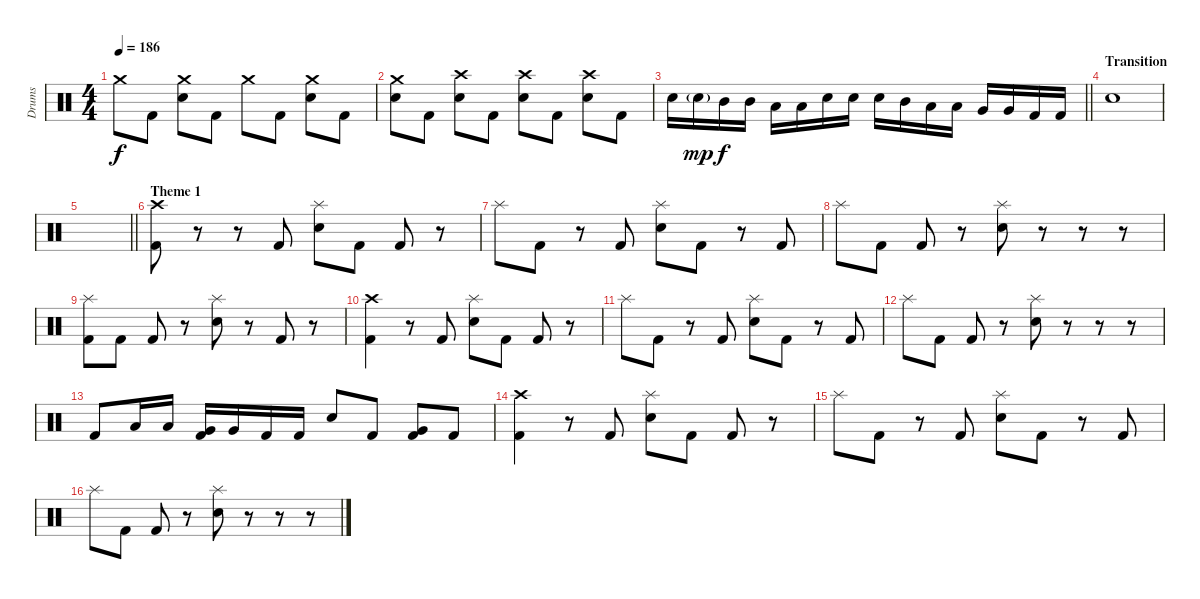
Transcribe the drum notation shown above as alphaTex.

\track ("Drums" "Drums") {instrument percussion}
\staff {score}
\articulation defaults
\ts (4 4)
\tempo 186
\clef neutral
\ks c "Crash medium (hit)".8{dy f} "Kick (hit) 2".8
("Crash medium (hit)" "Electric Snare (hit)").8 "Kick (hit) 2".8 "Crash medium (hit)".8 "Kick (hit) 2".8 ("Crash medium (hit)" "Electric Snare (hit)").8 "Kick (hit) 2".8 |
("Crash medium (hit)" "Electric Snare (hit)").8 "Kick (hit) 2".8 ("Crash high (hit)" "Electric Snare (hit)").8 "Kick (hit) 2".8 ("Crash high (hit)" "Electric Snare (hit)").8 "Kick (hit) 2".8 ("Crash high (hit)" "Electric Snare (hit)").8 "Kick (hit) 2".8 |
\barLineRight lightlight "Electric Snare (hit)".16 "Electric Snare (hit)"{g}.16{dy mp} "Mid Tom (hit)".16{dy f} "Mid Tom (hit)".16 "Low Tom (hit)".16 "Low Tom (hit)".16 "Electric Snare (hit)".16 "Electric Snare (hit)".16 "Electric Snare (hit)".16 "Mid Tom (hit)".16 "Low Tom (hit)".16 "Low Tom (hit)".16 "Very Low Tom (hit)".16 "Very Low Tom (hit)".16 "Kick (hit) 2".16 "Kick (hit) 2".16
|
\section ("" "Transition")
"Electric Snare (hit)".1 |
\barLineRight lightlight
|
\section ("" "Theme 1")
("Crash high (hit)" "Kick (hit) 2").8 r.8 r.8 "Kick (hit) 2".8 ("Splash (hit)" "Electric Snare (hit)").8 "Kick (hit) 2".8 "Kick (hit) 2".8 r.8 |
"Splash (hit)".8 "Kick (hit) 2".8 r.8 "Kick (hit) 2".8 ("Splash (hit)" "Electric Snare (hit)").8 "Kick (hit) 2".8 r.8 "Kick (hit) 2".8 |
"Splash (hit)".8 "Kick (hit) 2".8 "Kick (hit) 2".8 r.8 ("Splash (hit)" "Electric Snare (hit)").8 r.8 r.8 r.8 |
("Splash (hit)" "Kick (hit) 2").8 "Kick (hit) 2".8 "Kick (hit) 2".8 r.8 ("Splash (hit)" "Electric Snare (hit)").8 r.8 "Kick (hit) 2".8 r.8 |
("Crash high (hit)" "Kick (hit) 2").4 r.8 "Kick (hit) 2".8 ("Splash (hit)" "Electric Snare (hit)").8 "Kick (hit) 2".8 "Kick (hit) 2".8 r.8 |
"Splash (hit)".8 "Kick (hit) 2".8 r.8 "Kick (hit) 2".8 ("Splash (hit)" "Electric Snare (hit)").8 "Kick (hit) 2".8 r.8 "Kick (hit) 2".8 |
"Splash (hit)".8 "Kick (hit) 2".8 "Kick (hit) 2".8 r.8 ("Splash (hit)" "Electric Snare (hit)").8 r.8 r.8 r.8 |
"Kick (hit) 2".8 "Low Tom (hit)".16 "Low Tom (hit)".16 ("Very Low Tom (hit)" "Kick (hit) 2").16 "Very Low Tom (hit)".16 "Kick (hit) 2".16 "Kick (hit) 2".16 "Electric Snare (hit)".8 "Kick (hit) 2".8 ("Very Low Tom (hit)" "Kick (hit) 2").8 "Kick (hit) 2".8 |
("Crash high (hit)" "Kick (hit) 2").4 r.8 "Kick (hit) 2".8 ("Splash (hit)" "Electric Snare (hit)").8 "Kick (hit) 2".8 "Kick (hit) 2".8 r.8 |
"Splash (hit)".8 "Kick (hit) 2".8 r.8 "Kick (hit) 2".8 ("Splash (hit)" "Electric Snare (hit)").8 "Kick (hit) 2".8 r.8 "Kick (hit) 2".8 |
"Splash (hit)".8 "Kick (hit) 2".8 "Kick (hit) 2".8 r.8 ("Splash (hit)" "Electric Snare (hit)").8 r.8 r.8 r.8
